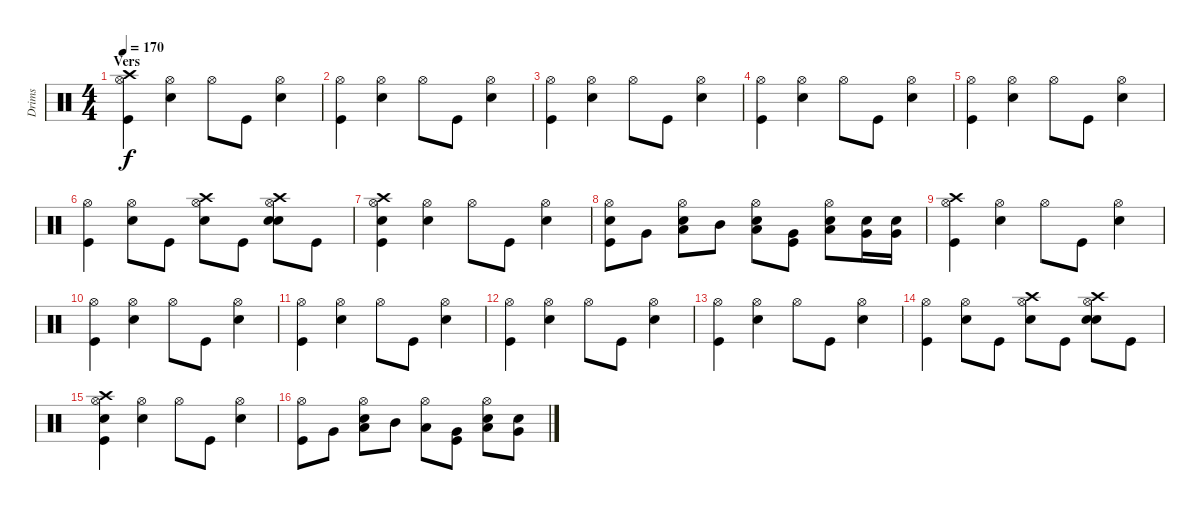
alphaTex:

\track ("Drims" "Drims") {instrument percussion}
\staff {score}
\articulation defaults
\ts (4 4)
\section ("" "Vers")
\tempo 170
\clef neutral
\ks c
("Hi-Hat (open)" "Crash high (hit)" "Kick (hit)").4{dy f} ("Hi-Hat (open)" "Electric Snare (hit)").4 "Hi-Hat (open)".8 "Kick (hit)".8 ("Hi-Hat (open)" "Electric Snare (hit)").4 |
("Hi-Hat (open)" "Kick (hit)").4 ("Hi-Hat (open)" "Electric Snare (hit)").4 "Hi-Hat (open)".8 "Kick (hit)".8 ("Hi-Hat (open)" "Electric Snare (hit)").4 |
("Hi-Hat (open)" "Kick (hit)").4 ("Hi-Hat (open)" "Electric Snare (hit)").4 "Hi-Hat (open)".8 "Kick (hit)".8 ("Hi-Hat (open)" "Electric Snare (hit)").4 |
("Hi-Hat (open)" "Kick (hit)").4 ("Hi-Hat (open)" "Electric Snare (hit)").4 "Hi-Hat (open)".8 "Kick (hit)".8 ("Hi-Hat (open)" "Electric Snare (hit)").4 |
("Hi-Hat (open)" "Kick (hit)").4 ("Hi-Hat (open)" "Electric Snare (hit)").4 "Hi-Hat (open)".8 "Kick (hit)".8 ("Hi-Hat (open)" "Electric Snare (hit)").4 |
("Hi-Hat (open)" "Kick (hit)").4 ("Hi-Hat (open)" "Electric Snare (hit)").8 "Kick (hit)".8 ("Hi-Hat (open)" "Crash high (hit)" "Electric Snare (hit)").8 "Kick (hit)".8 ("Hi-Hat (open)" "Crash high (hit)" "Electric Snare (hit)" "Electric Snare (hit)").8 "Kick (hit)".8 |
("Hi-Hat (open)" "Crash high (hit)" "Electric Snare (hit)" "Kick (hit)").4 ("Hi-Hat (open)" "Electric Snare (hit)").4 "Hi-Hat (open)".8 "Kick (hit)".8 ("Hi-Hat (open)" "Electric Snare (hit)").4 |
("Hi-Hat (open)" "Electric Snare (hit)" "Kick (hit)").8 "Very Low Tom (hit)".8 ("Hi-Hat (open)" "Electric Snare (hit)" "Low Tom (hit)").8 "Mid Tom (hit)".8 ("Hi-Hat (open)" "Electric Snare (hit)" "Low Tom (hit)").8 ("Very Low Tom (hit)" "Kick (hit)").8 ("Hi-Hat (open)" "Electric Snare (hit)" "Low Floor Tom (hit)").8 ("Electric Snare (hit)" "Very Low Tom (hit)").16 ("Electric Snare (hit)" "Very Low Tom (hit)").16 |
("Hi-Hat (open)" "Crash high (hit)" "Kick (hit)").4 ("Hi-Hat (open)" "Electric Snare (hit)").4 "Hi-Hat (open)".8 "Kick (hit)".8 ("Hi-Hat (open)" "Electric Snare (hit)").4 |
("Hi-Hat (open)" "Kick (hit)").4 ("Hi-Hat (open)" "Electric Snare (hit)").4 "Hi-Hat (open)".8 "Kick (hit)".8 ("Hi-Hat (open)" "Electric Snare (hit)").4 |
("Hi-Hat (open)" "Kick (hit)").4 ("Hi-Hat (open)" "Electric Snare (hit)").4 "Hi-Hat (open)".8 "Kick (hit)".8 ("Hi-Hat (open)" "Electric Snare (hit)").4 |
("Hi-Hat (open)" "Kick (hit)").4 ("Hi-Hat (open)" "Electric Snare (hit)").4 "Hi-Hat (open)".8 "Kick (hit)".8 ("Hi-Hat (open)" "Electric Snare (hit)").4 |
("Hi-Hat (open)" "Kick (hit)").4 ("Hi-Hat (open)" "Electric Snare (hit)").4 "Hi-Hat (open)".8 "Kick (hit)".8 ("Hi-Hat (open)" "Electric Snare (hit)").4 |
("Hi-Hat (open)" "Kick (hit)").4 ("Hi-Hat (open)" "Electric Snare (hit)").8 "Kick (hit)".8 ("Hi-Hat (open)" "Crash high (hit)" "Electric Snare (hit)").8 "Kick (hit)".8 ("Hi-Hat (open)" "Crash high (hit)" "Electric Snare (hit)" "Electric Snare (hit)").8 "Kick (hit)".8 |
("Hi-Hat (open)" "Crash high (hit)" "Electric Snare (hit)" "Kick (hit)").4 ("Hi-Hat (open)" "Electric Snare (hit)").4 "Hi-Hat (open)".8 "Kick (hit)".8 ("Hi-Hat (open)" "Electric Snare (hit)").4 |
("Hi-Hat (open)" "Kick (hit)").8 "Very Low Tom (hit)".8 ("Hi-Hat (open)" "Electric Snare (hit)" "Low Tom (hit)").8 "Mid Tom (hit)".8 ("Hi-Hat (open)" "Low Tom (hit)").8 ("Very Low Tom (hit)" "Kick (hit)").8 ("Hi-Hat (open)" "Electric Snare (hit)" "Low Floor Tom (hit)").8 ("Electric Snare (hit)" "Very Low Tom (hit)").8
